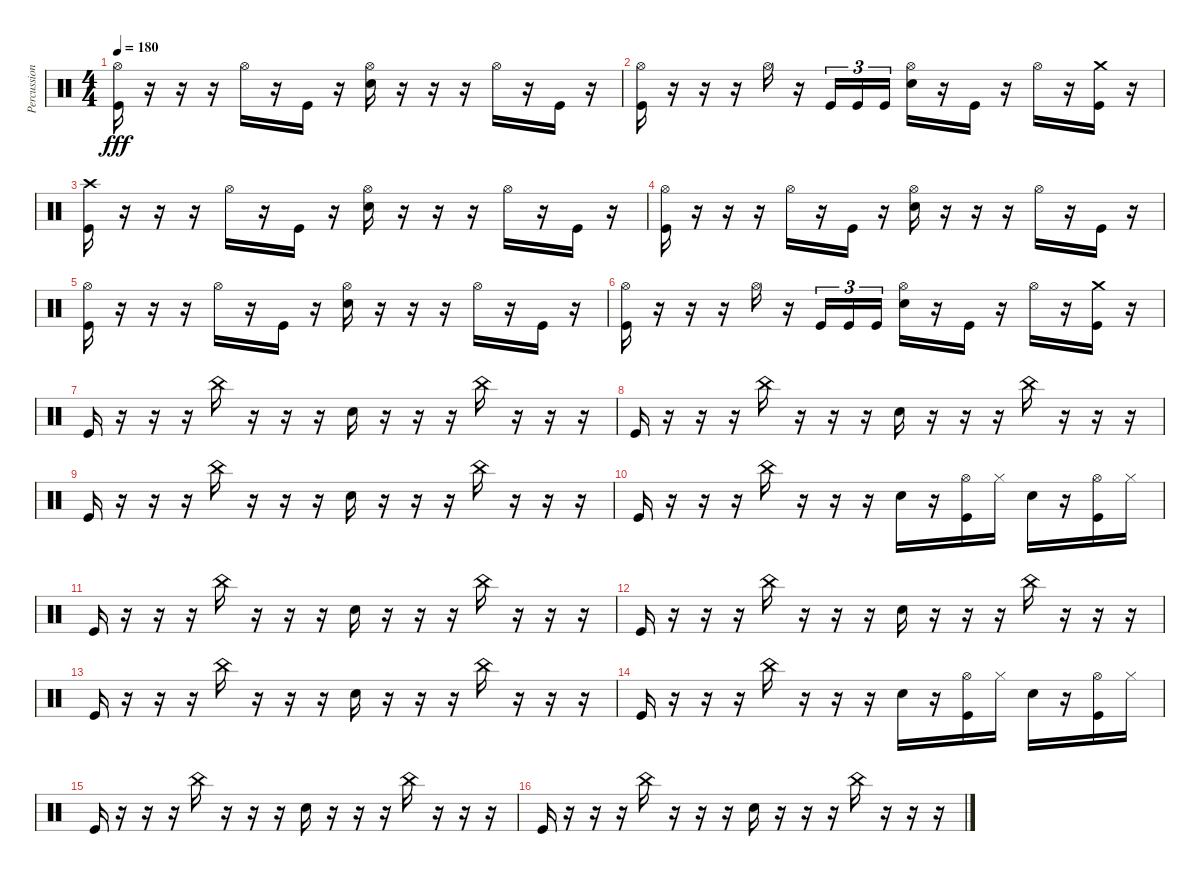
\track ("Percussion" "Percussion") {instrument percussion}
\staff {score}
\articulation defaults
\ts (4 4)
\tempo 180
\clef neutral
\ks c
("Hi-Hat (open)" "Kick (hit)").16{dy fff} r.16 r.16 r.16 "Hi-Hat (open)".16 r.16 "Kick (hit)".16 r.16 ("Hi-Hat (open)" "Electric Snare (hit)").16 r.16 r.16 r.16 "Hi-Hat (open)".16 r.16 "Kick (hit)".16 r.16 |
("Hi-Hat (open)" "Kick (hit)").16 r.16 r.16 r.16 "Hi-Hat (open)".16 r.16 "Kick (hit)".16{tu (3 2)} "Kick (hit)".16{tu (3 2)} "Kick (hit)".16{tu (3 2)} ("Hi-Hat (open)" "Electric Snare (hit)").16 r.16 "Kick (hit)".16 r.16 "Hi-Hat (open)".16 r.16 ("Crash medium (hit)" "Kick (hit)").16 r.16 |
("Crash high (hit)" "Kick (hit)").16 r.16 r.16 r.16 "Hi-Hat (open)".16 r.16 "Kick (hit)".16 r.16 ("Hi-Hat (open)" "Electric Snare (hit)").16 r.16 r.16 r.16 "Hi-Hat (open)".16 r.16 "Kick (hit)".16 r.16 |
("Hi-Hat (open)" "Kick (hit)").16 r.16 r.16 r.16 "Hi-Hat (open)".16 r.16 "Kick (hit)".16 r.16 ("Hi-Hat (open)" "Electric Snare (hit)").16 r.16 r.16 r.16 "Hi-Hat (open)".16 r.16 "Kick (hit)".16 r.16 |
("Hi-Hat (open)" "Kick (hit)").16 r.16 r.16 r.16 "Hi-Hat (open)".16 r.16 "Kick (hit)".16 r.16 ("Hi-Hat (open)" "Electric Snare (hit)").16 r.16 r.16 r.16 "Hi-Hat (open)".16 r.16 "Kick (hit)".16 r.16 |
("Hi-Hat (open)" "Kick (hit)").16 r.16 r.16 r.16 "Hi-Hat (open)".16 r.16 "Kick (hit)".16{tu (3 2)} "Kick (hit)".16{tu (3 2)} "Kick (hit)".16{tu (3 2)} ("Hi-Hat (open)" "Electric Snare (hit)").16 r.16 "Kick (hit)".16 r.16 "Hi-Hat (open)".16 r.16 ("Crash medium (hit)" "Kick (hit)").16 r.16 |
"Kick (hit)".16 r.16 r.16 r.16 "China (hit)".16 r.16 r.16 r.16 "Electric Snare (hit)".16 r.16 r.16 r.16 "China (hit)".16 r.16 r.16 r.16 |
"Kick (hit)".16 r.16 r.16 r.16 "China (hit)".16 r.16 r.16 r.16 "Electric Snare (hit)".16 r.16 r.16 r.16 "China (hit)".16 r.16 r.16 r.16 |
"Kick (hit)".16 r.16 r.16 r.16 "China (hit)".16 r.16 r.16 r.16 "Electric Snare (hit)".16 r.16 r.16 r.16 "China (hit)".16 r.16 r.16 r.16 |
"Kick (hit)".16 r.16 r.16 r.16 "China (hit)".16 r.16 r.16 r.16 "Electric Snare (hit)".16 r.16 ("Hi-Hat (open)" "Kick (hit)").16 "Hi-Hat (closed)".16 "Electric Snare (hit)".16 r.16 ("Hi-Hat (open)" "Kick (hit)").16 "Hi-Hat (closed)".16 |
"Kick (hit)".16 r.16 r.16 r.16 "China (hit)".16 r.16 r.16 r.16 "Electric Snare (hit)".16 r.16 r.16 r.16 "China (hit)".16 r.16 r.16 r.16 |
"Kick (hit)".16 r.16 r.16 r.16 "China (hit)".16 r.16 r.16 r.16 "Electric Snare (hit)".16 r.16 r.16 r.16 "China (hit)".16 r.16 r.16 r.16 |
"Kick (hit)".16 r.16 r.16 r.16 "China (hit)".16 r.16 r.16 r.16 "Electric Snare (hit)".16 r.16 r.16 r.16 "China (hit)".16 r.16 r.16 r.16 |
"Kick (hit)".16 r.16 r.16 r.16 "China (hit)".16 r.16 r.16 r.16 "Electric Snare (hit)".16 r.16 ("Hi-Hat (open)" "Kick (hit)").16 "Hi-Hat (closed)".16 "Electric Snare (hit)".16 r.16 ("Hi-Hat (open)" "Kick (hit)").16 "Hi-Hat (closed)".16 |
"Kick (hit)".16 r.16 r.16 r.16 "China (hit)".16 r.16 r.16 r.16 "Electric Snare (hit)".16 r.16 r.16 r.16 "China (hit)".16 r.16 r.16 r.16 |
"Kick (hit)".16 r.16 r.16 r.16 "China (hit)".16 r.16 r.16 r.16 "Electric Snare (hit)".16 r.16 r.16 r.16 "China (hit)".16 r.16 r.16 r.16
